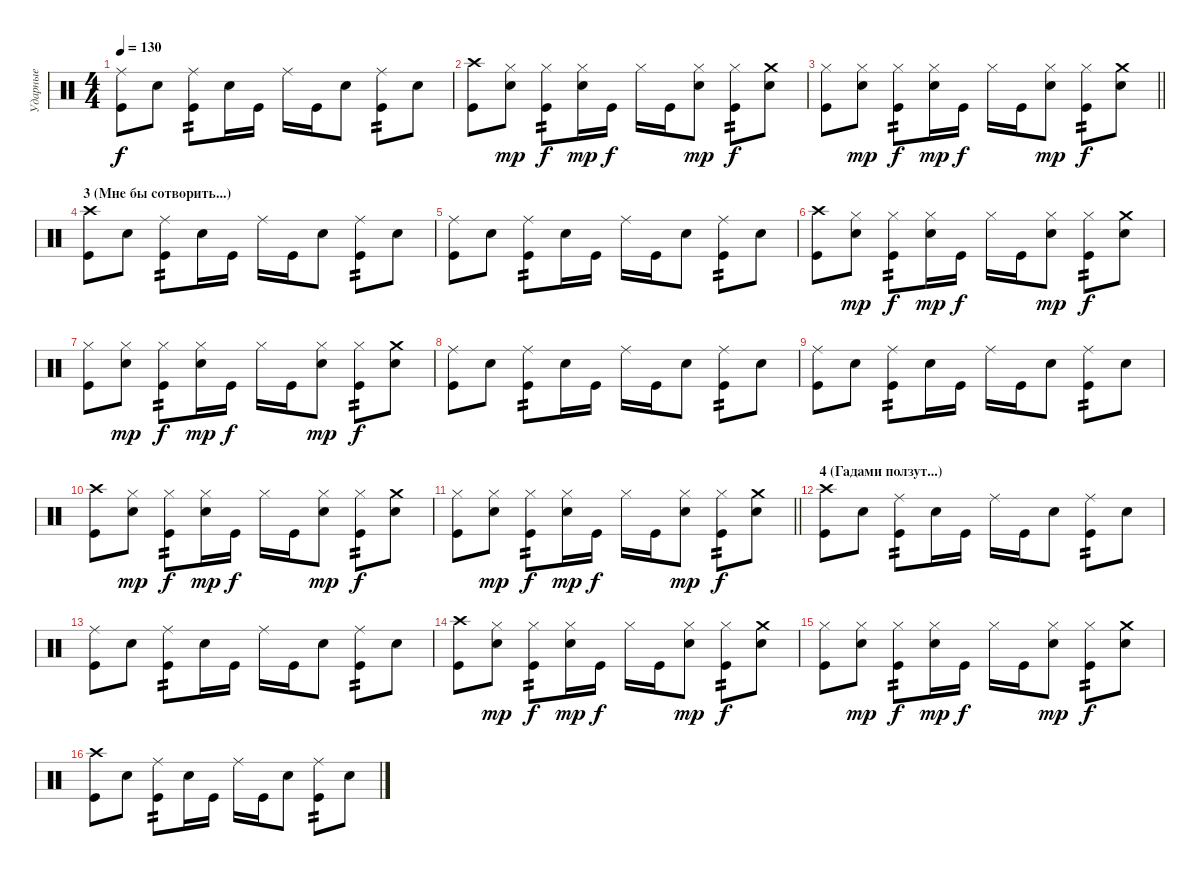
\track ("Ударные" "Ударные") {instrument percussion}
\staff {score}
\articulation defaults
\ts (4 4)
\tempo 130
\clef neutral
\ks c
("Ride (middle)" "Kick (hit)").8{dy f} "Snare (hit) 2".8 ("Ride (middle)" "Kick (hit)").8{tp 2} "Snare (hit) 2".16 "Kick (hit)".16 "Ride (middle)".16 "Kick (hit)".16 "Snare (hit) 2".8 ("Ride (middle)" "Kick (hit)").8{tp 2} "Snare (hit) 2".8 |
("Crash high (hit)" "Kick (hit)").8 ("Hi-Hat (closed)" "Snare (hit) 2").8{dy mp} ("Hi-Hat (closed)" "Kick (hit)").8{tp 2 dy f} ("Hi-Hat (closed)" "Snare (hit) 2").16{dy mp} "Kick (hit)".16{dy f} "Hi-Hat (closed)".16 "Kick (hit)".16 ("Hi-Hat (closed)" "Snare (hit) 2").8{dy mp} ("Hi-Hat (closed)" "Kick (hit)").8{tp 2 dy f} ("Crash medium (hit)" "Snare (hit) 2").8 |
\barLineRight lightlight
("Hi-Hat (closed)" "Kick (hit)").8 ("Hi-Hat (closed)" "Snare (hit) 2").8{dy mp} ("Hi-Hat (closed)" "Kick (hit)").8{tp 2 dy f} ("Hi-Hat (closed)" "Snare (hit) 2").16{dy mp} "Kick (hit)".16{dy f} "Hi-Hat (closed)".16 "Kick (hit)".16 ("Hi-Hat (closed)" "Snare (hit) 2").8{dy mp} ("Hi-Hat (closed)" "Kick (hit)").8{tp 2 dy f} ("Crash medium (hit)" "Snare (hit) 2").8 |
\section ("" "3 (Мне бы сотворить...)")
("Crash high (hit)" "Kick (hit)").8 "Snare (hit) 2".8 ("Ride (middle)" "Kick (hit)").8{tp 2} "Snare (hit) 2".16 "Kick (hit)".16 "Ride (middle)".16 "Kick (hit)".16 "Snare (hit) 2".8 ("Ride (middle)" "Kick (hit)").8{tp 2} "Snare (hit) 2".8 |
("Ride (middle)" "Kick (hit)").8 "Snare (hit) 2".8 ("Ride (middle)" "Kick (hit)").8{tp 2} "Snare (hit) 2".16 "Kick (hit)".16 "Ride (middle)".16 "Kick (hit)".16 "Snare (hit) 2".8 ("Ride (middle)" "Kick (hit)").8{tp 2} "Snare (hit) 2".8 |
("Crash high (hit)" "Kick (hit)").8 ("Hi-Hat (closed)" "Snare (hit) 2").8{dy mp} ("Hi-Hat (closed)" "Kick (hit)").8{tp 2 dy f} ("Hi-Hat (closed)" "Snare (hit) 2").16{dy mp} "Kick (hit)".16{dy f} "Hi-Hat (closed)".16 "Kick (hit)".16 ("Hi-Hat (closed)" "Snare (hit) 2").8{dy mp} ("Hi-Hat (closed)" "Kick (hit)").8{tp 2 dy f} ("Crash medium (hit)" "Snare (hit) 2").8 |
("Hi-Hat (closed)" "Kick (hit)").8 ("Hi-Hat (closed)" "Snare (hit) 2").8{dy mp} ("Hi-Hat (closed)" "Kick (hit)").8{tp 2 dy f} ("Hi-Hat (closed)" "Snare (hit) 2").16{dy mp} "Kick (hit)".16{dy f} "Hi-Hat (closed)".16 "Kick (hit)".16 ("Hi-Hat (closed)" "Snare (hit) 2").8{dy mp} ("Hi-Hat (closed)" "Kick (hit)").8{tp 2 dy f} ("Crash medium (hit)" "Snare (hit) 2").8 |
("Ride (middle)" "Kick (hit)").8 "Snare (hit) 2".8 ("Ride (middle)" "Kick (hit)").8{tp 2} "Snare (hit) 2".16 "Kick (hit)".16 "Ride (middle)".16 "Kick (hit)".16 "Snare (hit) 2".8 ("Ride (middle)" "Kick (hit)").8{tp 2} "Snare (hit) 2".8 |
("Ride (middle)" "Kick (hit)").8 "Snare (hit) 2".8 ("Ride (middle)" "Kick (hit)").8{tp 2} "Snare (hit) 2".16 "Kick (hit)".16 "Ride (middle)".16 "Kick (hit)".16 "Snare (hit) 2".8 ("Ride (middle)" "Kick (hit)").8{tp 2} "Snare (hit) 2".8 |
("Crash high (hit)" "Kick (hit)").8 ("Hi-Hat (closed)" "Snare (hit) 2").8{dy mp} ("Hi-Hat (closed)" "Kick (hit)").8{tp 2 dy f} ("Hi-Hat (closed)" "Snare (hit) 2").16{dy mp} "Kick (hit)".16{dy f} "Hi-Hat (closed)".16 "Kick (hit)".16 ("Hi-Hat (closed)" "Snare (hit) 2").8{dy mp} ("Hi-Hat (closed)" "Kick (hit)").8{tp 2 dy f} ("Crash medium (hit)" "Snare (hit) 2").8 |
\barLineRight lightlight
("Hi-Hat (closed)" "Kick (hit)").8 ("Hi-Hat (closed)" "Snare (hit) 2").8{dy mp} ("Hi-Hat (closed)" "Kick (hit)").8{tp 2 dy f} ("Hi-Hat (closed)" "Snare (hit) 2").16{dy mp} "Kick (hit)".16{dy f} "Hi-Hat (closed)".16 "Kick (hit)".16 ("Hi-Hat (closed)" "Snare (hit) 2").8{dy mp} ("Hi-Hat (closed)" "Kick (hit)").8{tp 2 dy f} ("Crash medium (hit)" "Snare (hit) 2").8 |
\section ("" "4 (Гадами ползут...)")
("Crash high (hit)" "Kick (hit)").8 "Snare (hit) 2".8 ("Ride (middle)" "Kick (hit)").8{tp 2} "Snare (hit) 2".16 "Kick (hit)".16 "Ride (middle)".16 "Kick (hit)".16 "Snare (hit) 2".8 ("Ride (middle)" "Kick (hit)").8{tp 2} "Snare (hit) 2".8 |
("Ride (middle)" "Kick (hit)").8 "Snare (hit) 2".8 ("Ride (middle)" "Kick (hit)").8{tp 2} "Snare (hit) 2".16 "Kick (hit)".16 "Ride (middle)".16 "Kick (hit)".16 "Snare (hit) 2".8 ("Ride (middle)" "Kick (hit)").8{tp 2} "Snare (hit) 2".8 |
("Crash high (hit)" "Kick (hit)").8 ("Hi-Hat (closed)" "Snare (hit) 2").8{dy mp} ("Hi-Hat (closed)" "Kick (hit)").8{tp 2 dy f} ("Hi-Hat (closed)" "Snare (hit) 2").16{dy mp} "Kick (hit)".16{dy f} "Hi-Hat (closed)".16 "Kick (hit)".16 ("Hi-Hat (closed)" "Snare (hit) 2").8{dy mp} ("Hi-Hat (closed)" "Kick (hit)").8{tp 2 dy f} ("Crash medium (hit)" "Snare (hit) 2").8 |
("Hi-Hat (closed)" "Kick (hit)").8 ("Hi-Hat (closed)" "Snare (hit) 2").8{dy mp} ("Hi-Hat (closed)" "Kick (hit)").8{tp 2 dy f} ("Hi-Hat (closed)" "Snare (hit) 2").16{dy mp} "Kick (hit)".16{dy f} "Hi-Hat (closed)".16 "Kick (hit)".16 ("Hi-Hat (closed)" "Snare (hit) 2").8{dy mp} ("Hi-Hat (closed)" "Kick (hit)").8{tp 2 dy f} ("Crash medium (hit)" "Snare (hit) 2").8 |
("Crash high (hit)" "Kick (hit)").8 "Snare (hit) 2".8 ("Ride (middle)" "Kick (hit)").8{tp 2} "Snare (hit) 2".16 "Kick (hit)".16 "Ride (middle)".16 "Kick (hit)".16 "Snare (hit) 2".8 ("Ride (middle)" "Kick (hit)").8{tp 2} "Snare (hit) 2".8
